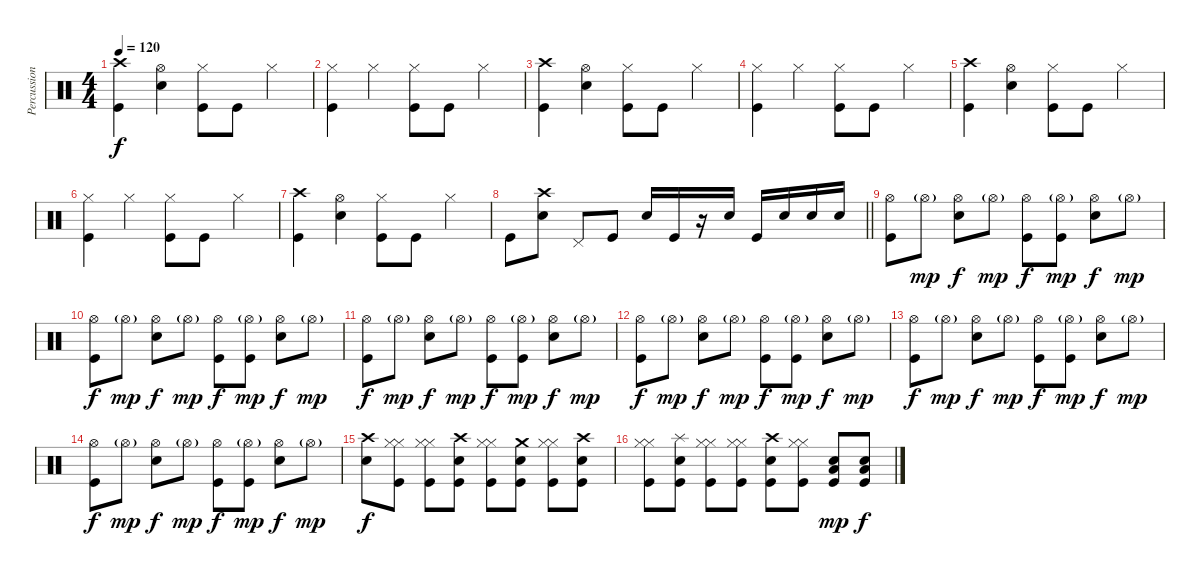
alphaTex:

\track ("Percussion" "Percussion") {instrument percussion}
\staff {score}
\articulation defaults
\ts (4 4)
\tempo 120
\clef neutral
\ks c
("Crash high (hit)" "Kick (hit)").4{dy f} ("Hi-Hat (open)" "Snare (hit) 2").4 ("Hi-Hat (closed)" "Kick (hit)").8 "Kick (hit)".8 "Hi-Hat (closed)".4 |
("Hi-Hat (closed)" "Kick (hit)").4 "Hi-Hat (closed)".4 ("Hi-Hat (closed)" "Kick (hit)").8 "Kick (hit)".8 "Hi-Hat (closed)".4 |
("Crash high (hit)" "Kick (hit)").4 ("Hi-Hat (open)" "Snare (hit) 2").4 ("Hi-Hat (closed)" "Kick (hit)").8 "Kick (hit)".8 "Hi-Hat (closed)".4 |
("Hi-Hat (closed)" "Kick (hit)").4 "Hi-Hat (closed)".4 ("Hi-Hat (closed)" "Kick (hit)").8 "Kick (hit)".8 "Hi-Hat (closed)".4 |
("Crash high (hit)" "Kick (hit)").4 ("Hi-Hat (open)" "Snare (hit) 2").4 ("Hi-Hat (closed)" "Kick (hit)").8 "Kick (hit)".8 "Hi-Hat (closed)".4 |
("Hi-Hat (closed)" "Kick (hit)").4 "Hi-Hat (closed)".4 ("Hi-Hat (closed)" "Kick (hit)").8 "Kick (hit)".8 "Hi-Hat (closed)".4 |
("Crash high (hit)" "Kick (hit)").4 ("Hi-Hat (open)" "Snare (hit) 2").4 ("Hi-Hat (closed)" "Kick (hit)").8 "Kick (hit)".8 "Hi-Hat (closed)".4 |
\barLineRight lightlight "Kick (hit)".8
("Crash high (hit)" "Snare (hit) 2").8 "Pedal Hi-Hat (hit)".8 "Kick (hit)".8 "Snare (hit) 2".16 "Kick (hit)".16 r.16 "Snare (hit) 2".16 "Kick (hit)".16 "Snare (hit) 2".16 "Snare (hit) 2".16 "Snare (hit) 2".16 |
("Hi-Hat (open)" "Kick (hit)").8 "Hi-Hat (open)"{g}.8{dy mp} ("Hi-Hat (open)" "Snare (hit) 2").8{dy f} "Hi-Hat (open)"{g}.8{dy mp} ("Hi-Hat (open)" "Kick (hit)").8{dy f} ("Hi-Hat (open)"{g} "Kick (hit)").8{dy mp} ("Hi-Hat (open)" "Snare (hit) 2").8{dy f} "Hi-Hat (open)"{g}.8{dy mp} |
("Hi-Hat (open)" "Kick (hit)").8{dy f} "Hi-Hat (open)"{g}.8{dy mp} ("Hi-Hat (open)" "Snare (hit) 2").8{dy f} "Hi-Hat (open)"{g}.8{dy mp} ("Hi-Hat (open)" "Kick (hit)").8{dy f} ("Hi-Hat (open)"{g} "Kick (hit)").8{dy mp} ("Hi-Hat (open)" "Snare (hit) 2").8{dy f} "Hi-Hat (open)"{g}.8{dy mp} |
("Hi-Hat (open)" "Kick (hit)").8{dy f} "Hi-Hat (open)"{g}.8{dy mp} ("Hi-Hat (open)" "Snare (hit) 2").8{dy f} "Hi-Hat (open)"{g}.8{dy mp} ("Hi-Hat (open)" "Kick (hit)").8{dy f} ("Hi-Hat (open)"{g} "Kick (hit)").8{dy mp} ("Hi-Hat (open)" "Snare (hit) 2").8{dy f} "Hi-Hat (open)"{g}.8{dy mp} |
("Hi-Hat (open)" "Kick (hit)").8{dy f} "Hi-Hat (open)"{g}.8{dy mp} ("Hi-Hat (open)" "Snare (hit) 2").8{dy f} "Hi-Hat (open)"{g}.8{dy mp} ("Hi-Hat (open)" "Kick (hit)").8{dy f} ("Hi-Hat (open)"{g} "Kick (hit)").8{dy mp} ("Hi-Hat (open)" "Snare (hit) 2").8{dy f} "Hi-Hat (open)"{g}.8{dy mp} |
("Hi-Hat (open)" "Kick (hit)").8{dy f} "Hi-Hat (open)"{g}.8{dy mp} ("Hi-Hat (open)" "Snare (hit) 2").8{dy f} "Hi-Hat (open)"{g}.8{dy mp} ("Hi-Hat (open)" "Kick (hit)").8{dy f} ("Hi-Hat (open)"{g} "Kick (hit)").8{dy mp} ("Hi-Hat (open)" "Snare (hit) 2").8{dy f} "Hi-Hat (open)"{g}.8{dy mp} |
("Hi-Hat (open)" "Kick (hit)").8{dy f} "Hi-Hat (open)"{g}.8{dy mp} ("Hi-Hat (open)" "Snare (hit) 2").8{dy f} "Hi-Hat (open)"{g}.8{dy mp} ("Hi-Hat (open)" "Kick (hit)").8{dy f} ("Hi-Hat (open)"{g} "Kick (hit)").8{dy mp} ("Hi-Hat (open)" "Snare (hit) 2").8{dy f} "Hi-Hat (open)"{g}.8{dy mp} |
("Crash high (hit)" "Snare (hit) 2").8{dy f} ("Hi-Hat (closed)" "Hi-Hat (closed)" "Kick (hit)").8 ("Hi-Hat (closed)" "Hi-Hat (closed)" "Kick (hit)").8 ("Crash high (hit)" "Snare (hit) 2" "Kick (hit)").8 ("Hi-Hat (closed)" "Hi-Hat (closed)" "Kick (hit)").8 ("Crash medium (hit)" "Snare (hit) 2" "Kick (hit)").8 ("Hi-Hat (closed)" "Hi-Hat (closed)" "Kick (hit)").8 ("Crash high (hit)" "Snare (hit) 2" "Kick (hit)").8 |
("Hi-Hat (closed)" "Hi-Hat (closed)" "Kick (hit)").8 ("Splash (hit)" "Snare (hit) 2" "Kick (hit)").8 ("Hi-Hat (closed)" "Hi-Hat (closed)" "Kick (hit)").8 ("Hi-Hat (closed)" "Hi-Hat (closed)" "Kick (hit)").8 ("Crash high (hit)" "Snare (hit) 2" "Kick (hit)").8 ("Hi-Hat (closed)" "Hi-Hat (closed)" "Kick (hit)").8 ("Snare (hit) 2" "Low Floor Tom (hit)" "Kick (hit)").8{dy mp} ("Snare (hit) 2" "Low Floor Tom (hit)" "Kick (hit)").8{dy f}
